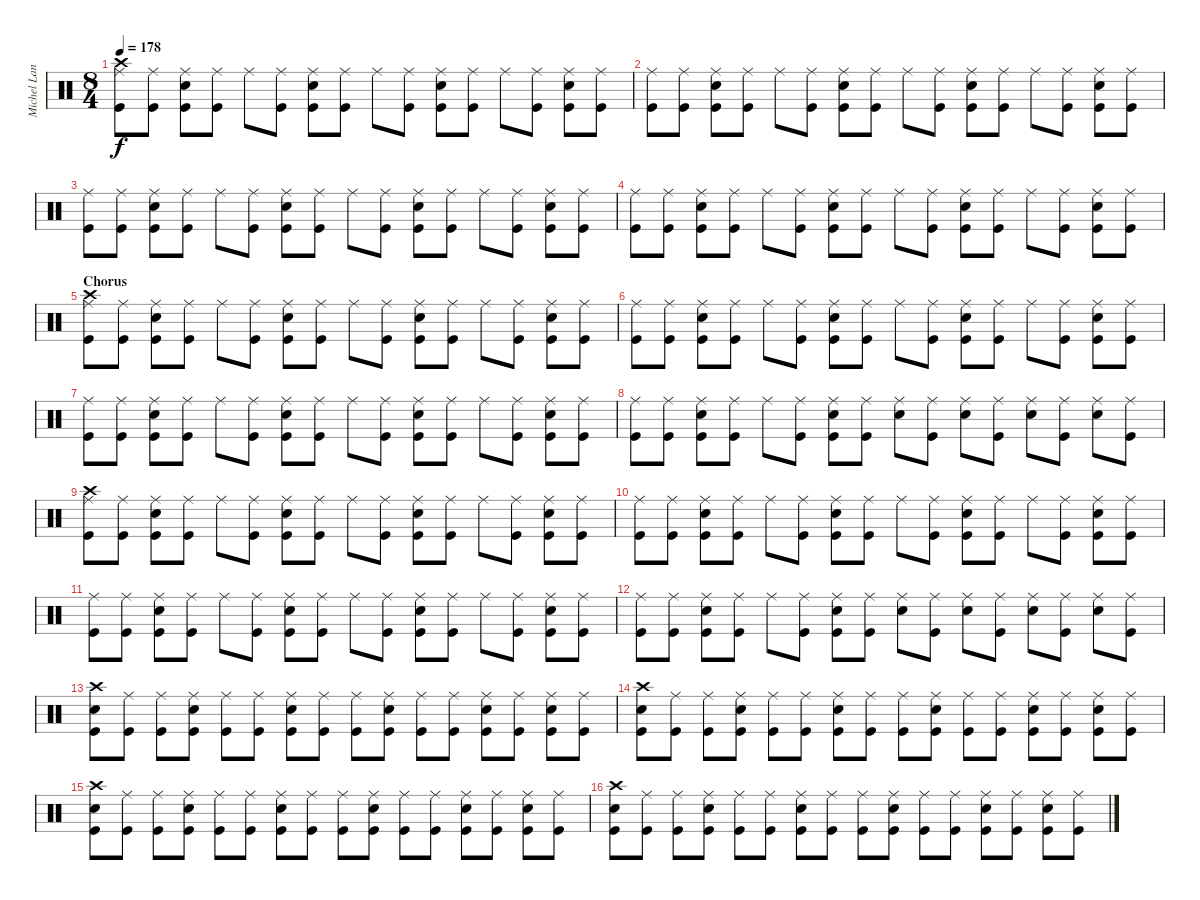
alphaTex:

\track ("Michel Langevin [Drums]" "Michel Lan") {instrument percussion}
\staff {score}
\articulation defaults
\ts (8 4)
\tempo 178
\clef neutral
\ks c
("Kick (hit)" "Ride (middle)" "Crash high (hit)").8{dy f} ("Kick (hit)" "Ride (middle)").8 ("Snare (hit) 2" "Kick (hit)" "Ride (middle)").8 ("Kick (hit)" "Ride (middle)").8 "Ride (middle)".8 ("Kick (hit)" "Ride (middle)").8 ("Snare (hit) 2" "Kick (hit)" "Ride (middle)").8 ("Kick (hit)" "Ride (middle)").8 "Ride (middle)".8 ("Kick (hit)" "Ride (middle)").8 ("Snare (hit) 2" "Kick (hit)" "Ride (middle)").8 ("Kick (hit)" "Ride (middle)").8 "Ride (middle)".8 ("Kick (hit)" "Ride (middle)").8 ("Snare (hit) 2" "Kick (hit)" "Ride (middle)").8 ("Kick (hit)" "Ride (middle)").8 |
("Kick (hit)" "Ride (middle)").8 ("Kick (hit)" "Ride (middle)").8 ("Snare (hit) 2" "Kick (hit)" "Ride (middle)").8 ("Kick (hit)" "Ride (middle)").8 "Ride (middle)".8 ("Kick (hit)" "Ride (middle)").8 ("Snare (hit) 2" "Kick (hit)" "Ride (middle)").8 ("Kick (hit)" "Ride (middle)").8 "Ride (middle)".8 ("Kick (hit)" "Ride (middle)").8 ("Snare (hit) 2" "Kick (hit)" "Ride (middle)").8 ("Kick (hit)" "Ride (middle)").8 "Ride (middle)".8 ("Kick (hit)" "Ride (middle)").8 ("Snare (hit) 2" "Kick (hit)" "Ride (middle)").8 ("Kick (hit)" "Ride (middle)").8 |
("Kick (hit)" "Ride (middle)").8 ("Kick (hit)" "Ride (middle)").8 ("Snare (hit) 2" "Kick (hit)" "Ride (middle)").8 ("Kick (hit)" "Ride (middle)").8 "Ride (middle)".8 ("Kick (hit)" "Ride (middle)").8 ("Snare (hit) 2" "Kick (hit)" "Ride (middle)").8 ("Kick (hit)" "Ride (middle)").8 "Ride (middle)".8 ("Kick (hit)" "Ride (middle)").8 ("Snare (hit) 2" "Kick (hit)" "Ride (middle)").8 ("Kick (hit)" "Ride (middle)").8 "Ride (middle)".8 ("Kick (hit)" "Ride (middle)").8 ("Snare (hit) 2" "Kick (hit)" "Ride (middle)").8 ("Kick (hit)" "Ride (middle)").8 |
("Kick (hit)" "Ride (middle)").8 ("Kick (hit)" "Ride (middle)").8 ("Snare (hit) 2" "Kick (hit)" "Ride (middle)").8 ("Kick (hit)" "Ride (middle)").8 "Ride (middle)".8 ("Kick (hit)" "Ride (middle)").8 ("Snare (hit) 2" "Kick (hit)" "Ride (middle)").8 ("Kick (hit)" "Ride (middle)").8 "Ride (middle)".8 ("Kick (hit)" "Ride (middle)").8 ("Snare (hit) 2" "Kick (hit)" "Ride (middle)").8 ("Kick (hit)" "Ride (middle)").8 "Ride (middle)".8 ("Kick (hit)" "Ride (middle)").8 ("Snare (hit) 2" "Kick (hit)" "Ride (middle)").8 ("Kick (hit)" "Ride (middle)").8 |
\section ("" "Chorus")
("Kick (hit)" "Ride (middle)" "Crash high (hit)").8 ("Kick (hit)" "Ride (middle)").8 ("Snare (hit) 2" "Kick (hit)" "Ride (middle)").8 ("Kick (hit)" "Ride (middle)").8 "Ride (middle)".8 ("Kick (hit)" "Ride (middle)").8 ("Snare (hit) 2" "Kick (hit)" "Ride (middle)").8 ("Kick (hit)" "Ride (middle)").8 "Ride (middle)".8 ("Kick (hit)" "Ride (middle)").8 ("Snare (hit) 2" "Kick (hit)" "Ride (middle)").8 ("Kick (hit)" "Ride (middle)").8 "Ride (middle)".8 ("Kick (hit)" "Ride (middle)").8 ("Snare (hit) 2" "Kick (hit)" "Ride (middle)").8 ("Kick (hit)" "Ride (middle)").8 |
("Kick (hit)" "Ride (middle)").8 ("Kick (hit)" "Ride (middle)").8 ("Snare (hit) 2" "Kick (hit)" "Ride (middle)").8 ("Kick (hit)" "Ride (middle)").8 "Ride (middle)".8 ("Kick (hit)" "Ride (middle)").8 ("Snare (hit) 2" "Kick (hit)" "Ride (middle)").8 ("Kick (hit)" "Ride (middle)").8 "Ride (middle)".8 ("Kick (hit)" "Ride (middle)").8 ("Snare (hit) 2" "Kick (hit)" "Ride (middle)").8 ("Kick (hit)" "Ride (middle)").8 "Ride (middle)".8 ("Kick (hit)" "Ride (middle)").8 ("Snare (hit) 2" "Kick (hit)" "Ride (middle)").8 ("Kick (hit)" "Ride (middle)").8 |
("Kick (hit)" "Ride (middle)").8 ("Kick (hit)" "Ride (middle)").8 ("Snare (hit) 2" "Kick (hit)" "Ride (middle)").8 ("Kick (hit)" "Ride (middle)").8 "Ride (middle)".8 ("Kick (hit)" "Ride (middle)").8 ("Snare (hit) 2" "Kick (hit)" "Ride (middle)").8 ("Kick (hit)" "Ride (middle)").8 "Ride (middle)".8 ("Kick (hit)" "Ride (middle)").8 ("Snare (hit) 2" "Kick (hit)" "Ride (middle)").8 ("Kick (hit)" "Ride (middle)").8 "Ride (middle)".8 ("Kick (hit)" "Ride (middle)").8 ("Snare (hit) 2" "Kick (hit)" "Ride (middle)").8 ("Kick (hit)" "Ride (middle)").8 |
("Kick (hit)" "Ride (middle)").8 ("Kick (hit)" "Ride (middle)").8 ("Snare (hit) 2" "Kick (hit)" "Ride (middle)").8 ("Kick (hit)" "Ride (middle)").8 "Ride (middle)".8 ("Kick (hit)" "Ride (middle)").8 ("Snare (hit) 2" "Kick (hit)" "Ride (middle)").8 ("Kick (hit)" "Ride (middle)").8 ("Snare (hit) 2" "Ride (middle)").8 ("Kick (hit)" "Ride (middle)").8 ("Snare (hit) 2" "Ride (middle)").8 ("Kick (hit)" "Ride (middle)").8 ("Snare (hit) 2" "Ride (middle)").8 ("Kick (hit)" "Ride (middle)").8 ("Snare (hit) 2" "Ride (middle)").8 ("Kick (hit)" "Ride (middle)").8 |
("Kick (hit)" "Ride (middle)" "Crash high (hit)").8 ("Kick (hit)" "Ride (middle)").8 ("Snare (hit) 2" "Kick (hit)" "Ride (middle)").8 ("Kick (hit)" "Ride (middle)").8 "Ride (middle)".8 ("Kick (hit)" "Ride (middle)").8 ("Snare (hit) 2" "Kick (hit)" "Ride (middle)").8 ("Kick (hit)" "Ride (middle)").8 "Ride (middle)".8 ("Kick (hit)" "Ride (middle)").8 ("Snare (hit) 2" "Kick (hit)" "Ride (middle)").8 ("Kick (hit)" "Ride (middle)").8 "Ride (middle)".8 ("Kick (hit)" "Ride (middle)").8 ("Snare (hit) 2" "Kick (hit)" "Ride (middle)").8 ("Kick (hit)" "Ride (middle)").8 |
("Kick (hit)" "Ride (middle)").8 ("Kick (hit)" "Ride (middle)").8 ("Snare (hit) 2" "Kick (hit)" "Ride (middle)").8 ("Kick (hit)" "Ride (middle)").8 "Ride (middle)".8 ("Kick (hit)" "Ride (middle)").8 ("Snare (hit) 2" "Kick (hit)" "Ride (middle)").8 ("Kick (hit)" "Ride (middle)").8 "Ride (middle)".8 ("Kick (hit)" "Ride (middle)").8 ("Snare (hit) 2" "Kick (hit)" "Ride (middle)").8 ("Kick (hit)" "Ride (middle)").8 "Ride (middle)".8 ("Kick (hit)" "Ride (middle)").8 ("Snare (hit) 2" "Kick (hit)" "Ride (middle)").8 ("Kick (hit)" "Ride (middle)").8 |
("Kick (hit)" "Ride (middle)").8 ("Kick (hit)" "Ride (middle)").8 ("Snare (hit) 2" "Kick (hit)" "Ride (middle)").8 ("Kick (hit)" "Ride (middle)").8 "Ride (middle)".8 ("Kick (hit)" "Ride (middle)").8 ("Snare (hit) 2" "Kick (hit)" "Ride (middle)").8 ("Kick (hit)" "Ride (middle)").8 "Ride (middle)".8 ("Kick (hit)" "Ride (middle)").8 ("Snare (hit) 2" "Kick (hit)" "Ride (middle)").8 ("Kick (hit)" "Ride (middle)").8 "Ride (middle)".8 ("Kick (hit)" "Ride (middle)").8 ("Snare (hit) 2" "Kick (hit)" "Ride (middle)").8 ("Kick (hit)" "Ride (middle)").8 |
("Kick (hit)" "Ride (middle)").8 ("Kick (hit)" "Ride (middle)").8 ("Snare (hit) 2" "Kick (hit)" "Ride (middle)").8 ("Kick (hit)" "Ride (middle)").8 "Ride (middle)".8 ("Kick (hit)" "Ride (middle)").8 ("Snare (hit) 2" "Kick (hit)" "Ride (middle)").8 ("Kick (hit)" "Ride (middle)").8 ("Snare (hit) 2" "Ride (middle)").8 ("Kick (hit)" "Ride (middle)").8 ("Snare (hit) 2" "Ride (middle)").8 ("Kick (hit)" "Ride (middle)").8 ("Snare (hit) 2" "Ride (middle)").8 ("Kick (hit)" "Ride (middle)").8 ("Snare (hit) 2" "Ride (middle)").8 ("Kick (hit)" "Ride (middle)").8 |
("Snare (hit) 2" "Kick (hit)" "Crash high (hit)").8 ("Kick (hit)" "Ride (middle)").8 ("Kick (hit)" "Ride (middle)").8 ("Snare (hit) 2" "Kick (hit)" "Ride (middle)").8 ("Kick (hit)" "Ride (middle)").8 ("Kick (hit)" "Ride (middle)").8 ("Snare (hit) 2" "Kick (hit)" "Ride (middle)").8 ("Kick (hit)" "Ride (middle)").8 ("Kick (hit)" "Ride (middle)").8 ("Snare (hit) 2" "Kick (hit)" "Ride (middle)").8 ("Kick (hit)" "Ride (middle)").8 ("Kick (hit)" "Ride (middle)").8 ("Snare (hit) 2" "Kick (hit)" "Ride (middle)").8 ("Kick (hit)" "Ride (middle)").8 ("Snare (hit) 2" "Kick (hit)" "Ride (middle)").8 ("Kick (hit)" "Ride (middle)").8 |
("Snare (hit) 2" "Kick (hit)" "Crash high (hit)").8 ("Kick (hit)" "Ride (middle)").8 ("Kick (hit)" "Ride (middle)").8 ("Snare (hit) 2" "Kick (hit)" "Ride (middle)").8 ("Kick (hit)" "Ride (middle)").8 ("Kick (hit)" "Ride (middle)").8 ("Snare (hit) 2" "Kick (hit)" "Ride (middle)").8 ("Kick (hit)" "Ride (middle)").8 ("Kick (hit)" "Ride (middle)").8 ("Snare (hit) 2" "Kick (hit)" "Ride (middle)").8 ("Kick (hit)" "Ride (middle)").8 ("Kick (hit)" "Ride (middle)").8 ("Snare (hit) 2" "Kick (hit)" "Ride (middle)").8 ("Kick (hit)" "Ride (middle)").8 ("Snare (hit) 2" "Kick (hit)" "Ride (middle)").8 ("Kick (hit)" "Ride (middle)").8 |
("Snare (hit) 2" "Kick (hit)" "Crash high (hit)").8 ("Kick (hit)" "Ride (middle)").8 ("Kick (hit)" "Ride (middle)").8 ("Snare (hit) 2" "Kick (hit)" "Ride (middle)").8 ("Kick (hit)" "Ride (middle)").8 ("Kick (hit)" "Ride (middle)").8 ("Snare (hit) 2" "Kick (hit)" "Ride (middle)").8 ("Kick (hit)" "Ride (middle)").8 ("Kick (hit)" "Ride (middle)").8 ("Snare (hit) 2" "Kick (hit)" "Ride (middle)").8 ("Kick (hit)" "Ride (middle)").8 ("Kick (hit)" "Ride (middle)").8 ("Snare (hit) 2" "Kick (hit)" "Ride (middle)").8 ("Kick (hit)" "Ride (middle)").8 ("Snare (hit) 2" "Kick (hit)" "Ride (middle)").8 ("Kick (hit)" "Ride (middle)").8 |
("Snare (hit) 2" "Kick (hit)" "Crash high (hit)").8 ("Kick (hit)" "Ride (middle)").8 ("Kick (hit)" "Ride (middle)").8 ("Snare (hit) 2" "Kick (hit)" "Ride (middle)").8 ("Kick (hit)" "Ride (middle)").8 ("Kick (hit)" "Ride (middle)").8 ("Snare (hit) 2" "Kick (hit)" "Ride (middle)").8 ("Kick (hit)" "Ride (middle)").8 ("Kick (hit)" "Ride (middle)").8 ("Snare (hit) 2" "Kick (hit)" "Ride (middle)").8 ("Kick (hit)" "Ride (middle)").8 ("Kick (hit)" "Ride (middle)").8 ("Snare (hit) 2" "Kick (hit)" "Ride (middle)").8 ("Kick (hit)" "Ride (middle)").8 ("Snare (hit) 2" "Kick (hit)" "Ride (middle)").8 ("Kick (hit)" "Ride (middle)").8
